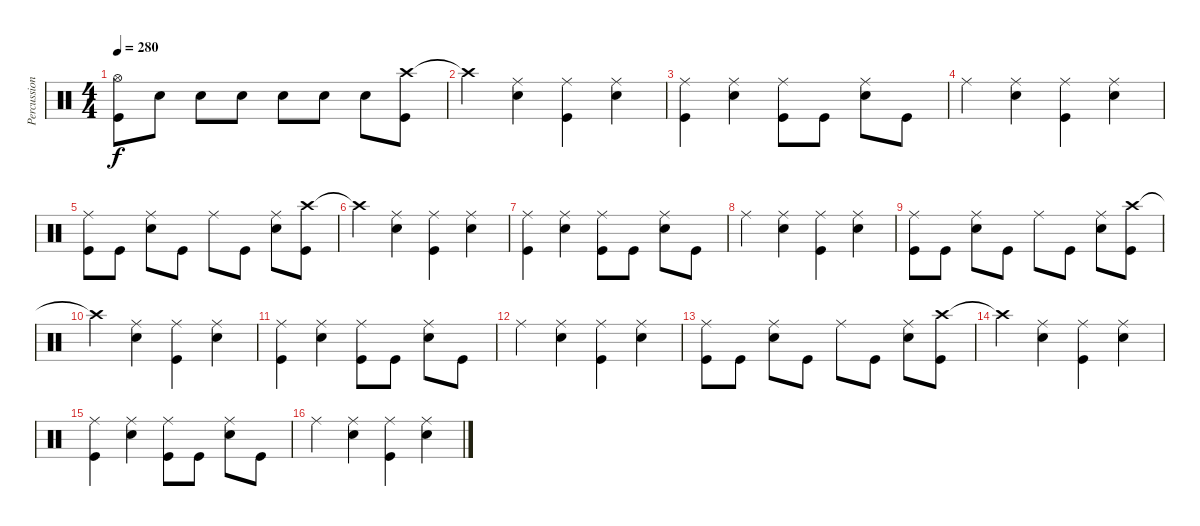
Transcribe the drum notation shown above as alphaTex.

\track ("Percussion" "Percussion") {instrument percussion}
\staff {score}
\articulation defaults
\ts (4 4)
\tempo 280
\clef neutral
\ks c
("Kick (hit)" "Hi-Hat (open)").8{dy f} "Snare (hit) 2".8 "Snare (hit) 2".8 "Snare (hit) 2".8 "Snare (hit) 2".8 "Snare (hit) 2".8 "Snare (hit) 2".8 ("Crash high (hit)" "Kick (hit)").8 |
"Crash high (hit)"{t}.4 ("Snare (hit) 2" "Ride (middle)").4 ("Kick (hit)" "Ride (middle)").4 ("Ride (middle)" "Snare (hit) 2").4 |
("Kick (hit)" "Ride (middle)").4 ("Snare (hit) 2" "Ride (middle)").4 ("Kick (hit)" "Ride (middle)").8 "Kick (hit)".8 ("Snare (hit) 2" "Ride (middle)").8 "Kick (hit)".8 |
"Ride (middle)".4 ("Snare (hit) 2" "Ride (middle)").4 ("Kick (hit)" "Ride (middle)").4 ("Snare (hit) 2" "Ride (middle)").4 |
("Kick (hit)" "Ride (middle)").8 "Kick (hit)".8 ("Snare (hit) 2" "Ride (middle)").8 "Kick (hit)".8 "Ride (middle)".8 "Kick (hit)".8 ("Snare (hit) 2" "Ride (middle)").8 ("Crash high (hit)" "Kick (hit)").8 |
"Crash high (hit)"{t}.4 ("Snare (hit) 2" "Ride (middle)").4 ("Kick (hit)" "Ride (middle)").4 ("Ride (middle)" "Snare (hit) 2").4 |
("Kick (hit)" "Ride (middle)").4 ("Snare (hit) 2" "Ride (middle)").4 ("Kick (hit)" "Ride (middle)").8 "Kick (hit)".8 ("Snare (hit) 2" "Ride (middle)").8 "Kick (hit)".8 |
"Ride (middle)".4 ("Snare (hit) 2" "Ride (middle)").4 ("Kick (hit)" "Ride (middle)").4 ("Snare (hit) 2" "Ride (middle)").4 |
("Kick (hit)" "Ride (middle)").8 "Kick (hit)".8 ("Snare (hit) 2" "Ride (middle)").8 "Kick (hit)".8 "Ride (middle)".8 "Kick (hit)".8 ("Snare (hit) 2" "Ride (middle)").8 ("Crash high (hit)" "Kick (hit)").8 |
"Crash high (hit)"{t}.4 ("Snare (hit) 2" "Ride (middle)").4 ("Kick (hit)" "Ride (middle)").4 ("Ride (middle)" "Snare (hit) 2").4 |
("Kick (hit)" "Ride (middle)").4 ("Snare (hit) 2" "Ride (middle)").4 ("Kick (hit)" "Ride (middle)").8 "Kick (hit)".8 ("Snare (hit) 2" "Ride (middle)").8 "Kick (hit)".8 |
"Ride (middle)".4 ("Snare (hit) 2" "Ride (middle)").4 ("Kick (hit)" "Ride (middle)").4 ("Snare (hit) 2" "Ride (middle)").4 |
("Kick (hit)" "Ride (middle)").8 "Kick (hit)".8 ("Snare (hit) 2" "Ride (middle)").8 "Kick (hit)".8 "Ride (middle)".8 "Kick (hit)".8 ("Snare (hit) 2" "Ride (middle)").8 ("Crash high (hit)" "Kick (hit)").8 |
"Crash high (hit)"{t}.4 ("Snare (hit) 2" "Ride (middle)").4 ("Kick (hit)" "Ride (middle)").4 ("Ride (middle)" "Snare (hit) 2").4 |
("Kick (hit)" "Ride (middle)").4 ("Snare (hit) 2" "Ride (middle)").4 ("Kick (hit)" "Ride (middle)").8 "Kick (hit)".8 ("Snare (hit) 2" "Ride (middle)").8 "Kick (hit)".8 |
"Ride (middle)".4 ("Snare (hit) 2" "Ride (middle)").4 ("Kick (hit)" "Ride (middle)").4 ("Snare (hit) 2" "Ride (middle)").4
